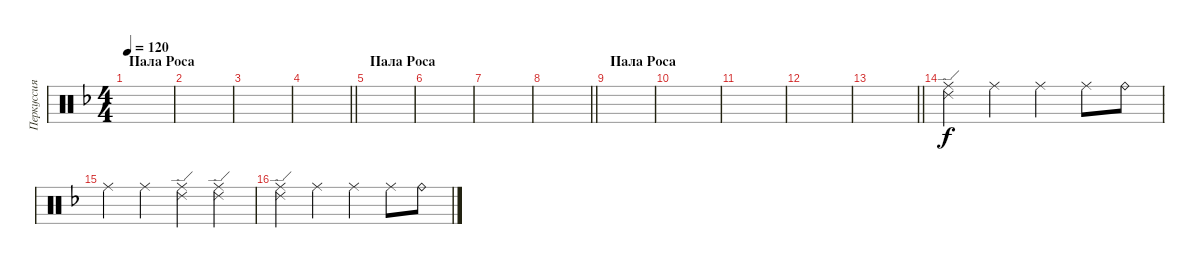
\track ("Перкуссия" "Перкуссия") {instrument percussion}
\staff {score}
\articulation defaults
\ts (4 4)
\section ("" "Пала Роса")
\tempo 120
\clef neutral
\ks dminor
|
|
|
\barLineRight lightlight
|
\section ("" "Пала Роса")
|
|
|
\barLineRight lightlight
|
\section ("" "Пала Роса")
|
|
|
|
\barLineRight lightlight
|
("Ride (middle)" "Ride (edge) 2").4 "Ride (middle)".4 "Ride (middle)".4 "Ride (middle)".8 "Ride (bell)".8 |
"Ride (middle)".4 "Ride (middle)".4 ("Ride (middle)" "Ride (edge) 2").4 ("Ride (middle)" "Ride (edge) 2").4 |
("Ride (middle)" "Ride (edge) 2").4 "Ride (middle)".4 "Ride (middle)".4 "Ride (middle)".8 "Ride (bell)".8
